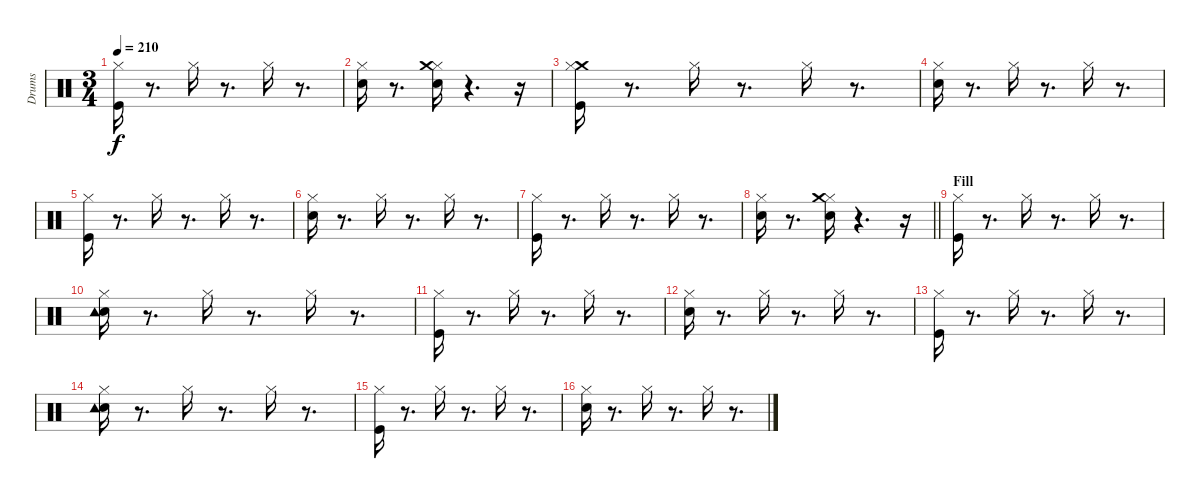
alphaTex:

\track ("Drums" "Drums") {instrument percussion}
\staff {score}
\articulation defaults
\ts (3 4)
\tempo 210
\clef neutral
\ks c
("Kick (hit)" "Hi-Hat (closed)").16{dy f} r.8{d} "Hi-Hat (closed)".16 r.8{d} "Hi-Hat (closed)".16 r.8{d} |
("Hi-Hat (closed)" "Electric Snare (hit)").16 r.8{d} ("Hi-Hat (closed)" "Electric Snare (hit)" "Crash medium (hit)").16 r.4{d} r.16 |
("Kick (hit)" "Crash medium (hit)" "Hi-Hat (closed)").16 r.8{d} "Hi-Hat (closed)".16 r.8{d} "Hi-Hat (closed)".16 r.8{d} |
("Hi-Hat (closed)" "Electric Snare (hit)").16 r.8{d} "Hi-Hat (closed)".16 r.8{d} "Hi-Hat (closed)".16 r.8{d} |
("Kick (hit)" "Hi-Hat (closed)").16 r.8{d} "Hi-Hat (closed)".16 r.8{d} "Hi-Hat (closed)".16 r.8{d} |
("Hi-Hat (closed)" "Electric Snare (hit)").16 r.8{d} "Hi-Hat (closed)".16 r.8{d} "Hi-Hat (closed)".16 r.8{d} |
("Kick (hit)" "Hi-Hat (closed)").16 r.8{d} "Hi-Hat (closed)".16 r.8{d} "Hi-Hat (closed)".16 r.8{d} |
\barLineRight lightlight
("Hi-Hat (closed)" "Electric Snare (hit)").16 r.8{d} ("Hi-Hat (closed)" "Electric Snare (hit)" "Crash medium (hit)").16 r.4{d} r.16 |
\section ("" "Fill")
("Kick (hit)" "Hi-Hat (closed)").16 r.8{d} "Hi-Hat (closed)".16 r.8{d} "Hi-Hat (closed)".16 r.8{d} |
("Hi-Hat (closed)" "Electric Snare (hit)" "Tambourine (hit)").16 r.8{d} "Hi-Hat (closed)".16 r.8{d} "Hi-Hat (closed)".16 r.8{d} |
("Kick (hit)" "Hi-Hat (closed)").16 r.8{d} "Hi-Hat (closed)".16 r.8{d} "Hi-Hat (closed)".16 r.8{d} |
("Hi-Hat (closed)" "Electric Snare (hit)").16 r.8{d} "Hi-Hat (closed)".16 r.8{d} "Hi-Hat (closed)".16 r.8{d} |
("Kick (hit)" "Hi-Hat (closed)").16 r.8{d} "Hi-Hat (closed)".16 r.8{d} "Hi-Hat (closed)".16 r.8{d} |
("Hi-Hat (closed)" "Electric Snare (hit)" "Tambourine (hit)").16 r.8{d} "Hi-Hat (closed)".16 r.8{d} "Hi-Hat (closed)".16 r.8{d} |
("Kick (hit)" "Hi-Hat (closed)").16 r.8{d} "Hi-Hat (closed)".16 r.8{d} "Hi-Hat (closed)".16 r.8{d} |
("Hi-Hat (closed)" "Electric Snare (hit)").16 r.8{d} "Hi-Hat (closed)".16 r.8{d} "Hi-Hat (closed)".16 r.8{d}
